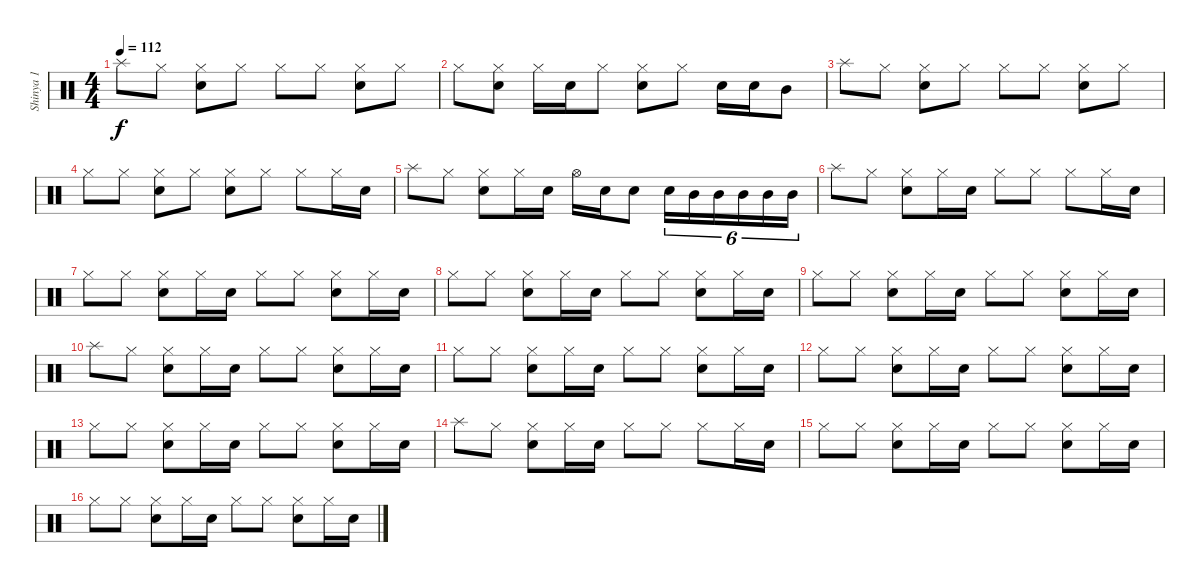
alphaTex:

\track ("Shinya 1" "Shinya 1") {instrument percussion}
\staff {score}
\articulation defaults
\ts (4 4)
\tempo 112
\clef neutral
\ks c "Splash (hit)".8{dy f} "Hi-Hat (closed)".8
("Hi-Hat (closed)" "Snare (hit) 2").8 "Hi-Hat (closed)".8 "Hi-Hat (closed)".8 "Hi-Hat (closed)".8 ("Hi-Hat (closed)" "Snare (hit) 2").8 "Hi-Hat (closed)".8 |
"Hi-Hat (closed)".8 ("Hi-Hat (closed)" "Snare (hit) 2").8 "Hi-Hat (closed)".16 "Snare (hit) 2".16 "Hi-Hat (closed)".8 ("Hi-Hat (closed)" "Snare (hit) 2").8 "Hi-Hat (closed)".8 "Snare (hit) 2".16 "Snare (hit) 2".16 "Mid Tom (hit)".8 |
"Splash (hit)".8 "Hi-Hat (closed)".8 ("Hi-Hat (closed)" "Snare (hit) 2").8 "Hi-Hat (closed)".8 "Hi-Hat (closed)".8 "Hi-Hat (closed)".8 ("Hi-Hat (closed)" "Snare (hit) 2").8 "Hi-Hat (closed)".8 |
"Hi-Hat (closed)".8 "Hi-Hat (closed)".8 ("Hi-Hat (closed)" "Snare (hit) 2").8 "Hi-Hat (closed)".8 ("Hi-Hat (closed)" "Snare (hit) 2").8 "Hi-Hat (closed)".8 "Hi-Hat (closed)".8 "Hi-Hat (closed)".16 "Snare (hit) 2".16 |
"Splash (hit)".8 "Hi-Hat (closed)".8 ("Hi-Hat (closed)" "Snare (hit) 2").8 "Hi-Hat (closed)".16 "Snare (hit) 2".16 "Hi-Hat (open)".16 "Snare (hit) 2".16 "Snare (hit) 2".8 "Snare (hit) 2".16{tu (6 4)} "Mid Tom (hit)".16{tu (6 4)} "Mid Tom (hit)".16{tu (6 4)} "Mid Tom (hit)".16{tu (6 4)} "Mid Tom (hit)".16{tu (6 4)} "Mid Tom (hit)".16{tu (6 4)} |
"Splash (hit)".8 "Hi-Hat (closed)".8 ("Hi-Hat (closed)" "Snare (hit) 2").8 "Hi-Hat (closed)".16 "Snare (hit) 2".16 "Hi-Hat (closed)".8 "Hi-Hat (closed)".8 "Hi-Hat (closed)".8 "Hi-Hat (closed)".16 "Snare (hit) 2".16 |
"Hi-Hat (closed)".8 "Hi-Hat (closed)".8 ("Hi-Hat (closed)" "Snare (hit) 2").8 "Hi-Hat (closed)".16 "Snare (hit) 2".16 "Hi-Hat (closed)".8 "Hi-Hat (closed)".8 ("Hi-Hat (closed)" "Snare (hit) 2").8 "Hi-Hat (closed)".16 "Snare (hit) 2".16 |
"Hi-Hat (closed)".8 "Hi-Hat (closed)".8 ("Hi-Hat (closed)" "Snare (hit) 2").8 "Hi-Hat (closed)".16 "Snare (hit) 2".16 "Hi-Hat (closed)".8 "Hi-Hat (closed)".8 ("Hi-Hat (closed)" "Snare (hit) 2").8 "Hi-Hat (closed)".16 "Snare (hit) 2".16 |
"Hi-Hat (closed)".8 "Hi-Hat (closed)".8 ("Hi-Hat (closed)" "Snare (hit) 2").8 "Hi-Hat (closed)".16 "Snare (hit) 2".16 "Hi-Hat (closed)".8 "Hi-Hat (closed)".8 ("Hi-Hat (closed)" "Snare (hit) 2").8 "Hi-Hat (closed)".16 "Snare (hit) 2".16 |
"Splash (hit)".8 "Hi-Hat (closed)".8 ("Hi-Hat (closed)" "Snare (hit) 2").8 "Hi-Hat (closed)".16 "Snare (hit) 2".16 "Hi-Hat (closed)".8 "Hi-Hat (closed)".8 ("Hi-Hat (closed)" "Snare (hit) 2").8 "Hi-Hat (closed)".16 "Snare (hit) 2".16 |
"Hi-Hat (closed)".8 "Hi-Hat (closed)".8 ("Hi-Hat (closed)" "Snare (hit) 2").8 "Hi-Hat (closed)".16 "Snare (hit) 2".16 "Hi-Hat (closed)".8 "Hi-Hat (closed)".8 ("Hi-Hat (closed)" "Snare (hit) 2").8 "Hi-Hat (closed)".16 "Snare (hit) 2".16 |
"Hi-Hat (closed)".8 "Hi-Hat (closed)".8 ("Hi-Hat (closed)" "Snare (hit) 2").8 "Hi-Hat (closed)".16 "Snare (hit) 2".16 "Hi-Hat (closed)".8 "Hi-Hat (closed)".8 ("Hi-Hat (closed)" "Snare (hit) 2").8 "Hi-Hat (closed)".16 "Snare (hit) 2".16 |
"Hi-Hat (closed)".8 "Hi-Hat (closed)".8 ("Hi-Hat (closed)" "Snare (hit) 2").8 "Hi-Hat (closed)".16 "Snare (hit) 2".16 "Hi-Hat (closed)".8 "Hi-Hat (closed)".8 ("Hi-Hat (closed)" "Snare (hit) 2").8 "Hi-Hat (closed)".16 "Snare (hit) 2".16 |
"Splash (hit)".8 "Hi-Hat (closed)".8 ("Hi-Hat (closed)" "Snare (hit) 2").8 "Hi-Hat (closed)".16 "Snare (hit) 2".16 "Hi-Hat (closed)".8 "Hi-Hat (closed)".8 "Hi-Hat (closed)".8 "Hi-Hat (closed)".16 "Snare (hit) 2".16 |
"Hi-Hat (closed)".8 "Hi-Hat (closed)".8 ("Hi-Hat (closed)" "Snare (hit) 2").8 "Hi-Hat (closed)".16 "Snare (hit) 2".16 "Hi-Hat (closed)".8 "Hi-Hat (closed)".8 ("Hi-Hat (closed)" "Snare (hit) 2").8 "Hi-Hat (closed)".16 "Snare (hit) 2".16 |
"Hi-Hat (closed)".8 "Hi-Hat (closed)".8 ("Hi-Hat (closed)" "Snare (hit) 2").8 "Hi-Hat (closed)".16 "Snare (hit) 2".16 "Hi-Hat (closed)".8 "Hi-Hat (closed)".8 ("Hi-Hat (closed)" "Snare (hit) 2").8 "Hi-Hat (closed)".16 "Snare (hit) 2".16
